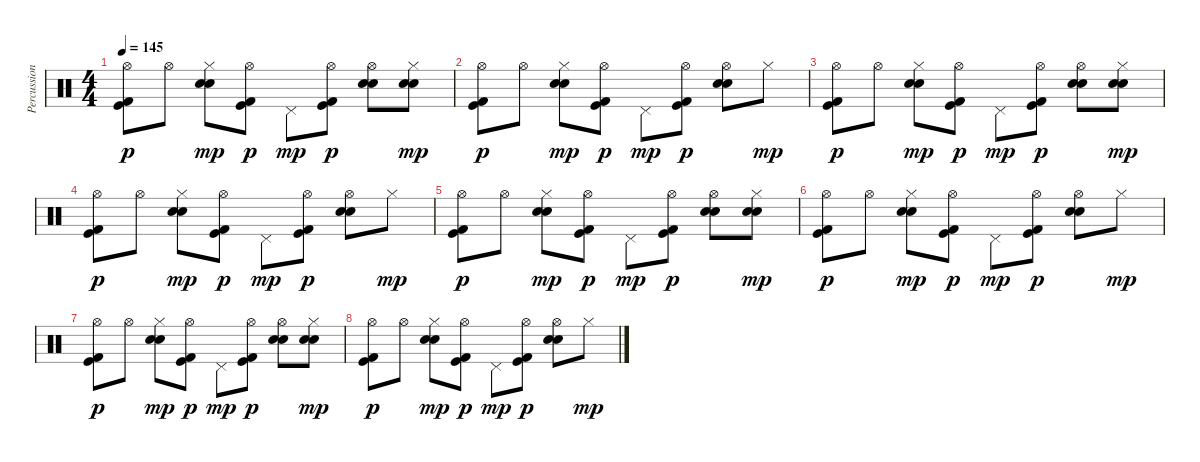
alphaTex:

\track ("Percussions" "Percussion") {instrument percussion}
\staff {score}
\articulation defaults
\ts (4 4)
\tempo 145
\clef neutral
\ks c
("Kick (hit) 2" "Kick (hit)" "Hi-Hat (open)").8{dy p} "Hi-Hat (open)".8 ("Snare (hit) 2" "Electric Snare (hit)" "Hi-Hat (closed)").8{dy mp} ("Kick (hit) 2" "Kick (hit)" "Hi-Hat (open)").8{dy p} "Pedal Hi-Hat (hit)".8{dy mp} ("Kick (hit) 2" "Kick (hit)" "Hi-Hat (open)").8{dy p} ("Snare (hit) 2" "Electric Snare (hit)" "Hi-Hat (open)").8 ("Snare (hit) 2" "Electric Snare (hit)" "Hi-Hat (closed)").8{dy mp} |
("Kick (hit) 2" "Kick (hit)" "Hi-Hat (open)").8{dy p} "Hi-Hat (open)".8 ("Snare (hit) 2" "Electric Snare (hit)" "Hi-Hat (closed)").8{dy mp} ("Kick (hit) 2" "Kick (hit)" "Hi-Hat (open)").8{dy p} "Pedal Hi-Hat (hit)".8{dy mp} ("Kick (hit) 2" "Kick (hit)" "Hi-Hat (open)").8{dy p} ("Snare (hit) 2" "Electric Snare (hit)" "Hi-Hat (open)").8 "Hi-Hat (closed)".8{dy mp} |
("Kick (hit) 2" "Kick (hit)" "Hi-Hat (open)").8{dy p} "Hi-Hat (open)".8 ("Snare (hit) 2" "Electric Snare (hit)" "Hi-Hat (closed)").8{dy mp} ("Kick (hit) 2" "Kick (hit)" "Hi-Hat (open)").8{dy p} "Pedal Hi-Hat (hit)".8{dy mp} ("Kick (hit) 2" "Kick (hit)" "Hi-Hat (open)").8{dy p} ("Snare (hit) 2" "Electric Snare (hit)" "Hi-Hat (open)").8 ("Snare (hit) 2" "Electric Snare (hit)" "Hi-Hat (closed)").8{dy mp} |
("Kick (hit) 2" "Kick (hit)" "Hi-Hat (open)").8{dy p} "Hi-Hat (open)".8 ("Snare (hit) 2" "Electric Snare (hit)" "Hi-Hat (closed)").8{dy mp} ("Kick (hit) 2" "Kick (hit)" "Hi-Hat (open)").8{dy p} "Pedal Hi-Hat (hit)".8{dy mp} ("Kick (hit) 2" "Kick (hit)" "Hi-Hat (open)").8{dy p} ("Snare (hit) 2" "Electric Snare (hit)" "Hi-Hat (open)").8 "Hi-Hat (closed)".8{dy mp} |
("Kick (hit) 2" "Kick (hit)" "Hi-Hat (open)").8{dy p} "Hi-Hat (open)".8 ("Snare (hit) 2" "Electric Snare (hit)" "Hi-Hat (closed)").8{dy mp} ("Kick (hit) 2" "Kick (hit)" "Hi-Hat (open)").8{dy p} "Pedal Hi-Hat (hit)".8{dy mp} ("Kick (hit) 2" "Kick (hit)" "Hi-Hat (open)").8{dy p} ("Snare (hit) 2" "Electric Snare (hit)" "Hi-Hat (open)").8 ("Snare (hit) 2" "Electric Snare (hit)" "Hi-Hat (closed)").8{dy mp} |
("Kick (hit) 2" "Kick (hit)" "Hi-Hat (open)").8{dy p} "Hi-Hat (open)".8 ("Snare (hit) 2" "Electric Snare (hit)" "Hi-Hat (closed)").8{dy mp} ("Kick (hit) 2" "Kick (hit)" "Hi-Hat (open)").8{dy p} "Pedal Hi-Hat (hit)".8{dy mp} ("Kick (hit) 2" "Kick (hit)" "Hi-Hat (open)").8{dy p} ("Snare (hit) 2" "Electric Snare (hit)" "Hi-Hat (open)").8 "Hi-Hat (closed)".8{dy mp} |
("Kick (hit) 2" "Kick (hit)" "Hi-Hat (open)").8{dy p} "Hi-Hat (open)".8 ("Snare (hit) 2" "Electric Snare (hit)" "Hi-Hat (closed)").8{dy mp} ("Kick (hit) 2" "Kick (hit)" "Hi-Hat (open)").8{dy p} "Pedal Hi-Hat (hit)".8{dy mp} ("Kick (hit) 2" "Kick (hit)" "Hi-Hat (open)").8{dy p} ("Snare (hit) 2" "Electric Snare (hit)" "Hi-Hat (open)").8 ("Snare (hit) 2" "Electric Snare (hit)" "Hi-Hat (closed)").8{dy mp} |
("Kick (hit) 2" "Kick (hit)" "Hi-Hat (open)").8{dy p} "Hi-Hat (open)".8 ("Snare (hit) 2" "Electric Snare (hit)" "Hi-Hat (closed)").8{dy mp} ("Kick (hit) 2" "Kick (hit)" "Hi-Hat (open)").8{dy p} "Pedal Hi-Hat (hit)".8{dy mp} ("Kick (hit) 2" "Kick (hit)" "Hi-Hat (open)").8{dy p} ("Snare (hit) 2" "Electric Snare (hit)" "Hi-Hat (open)").8 "Hi-Hat (closed)".8{dy mp}
